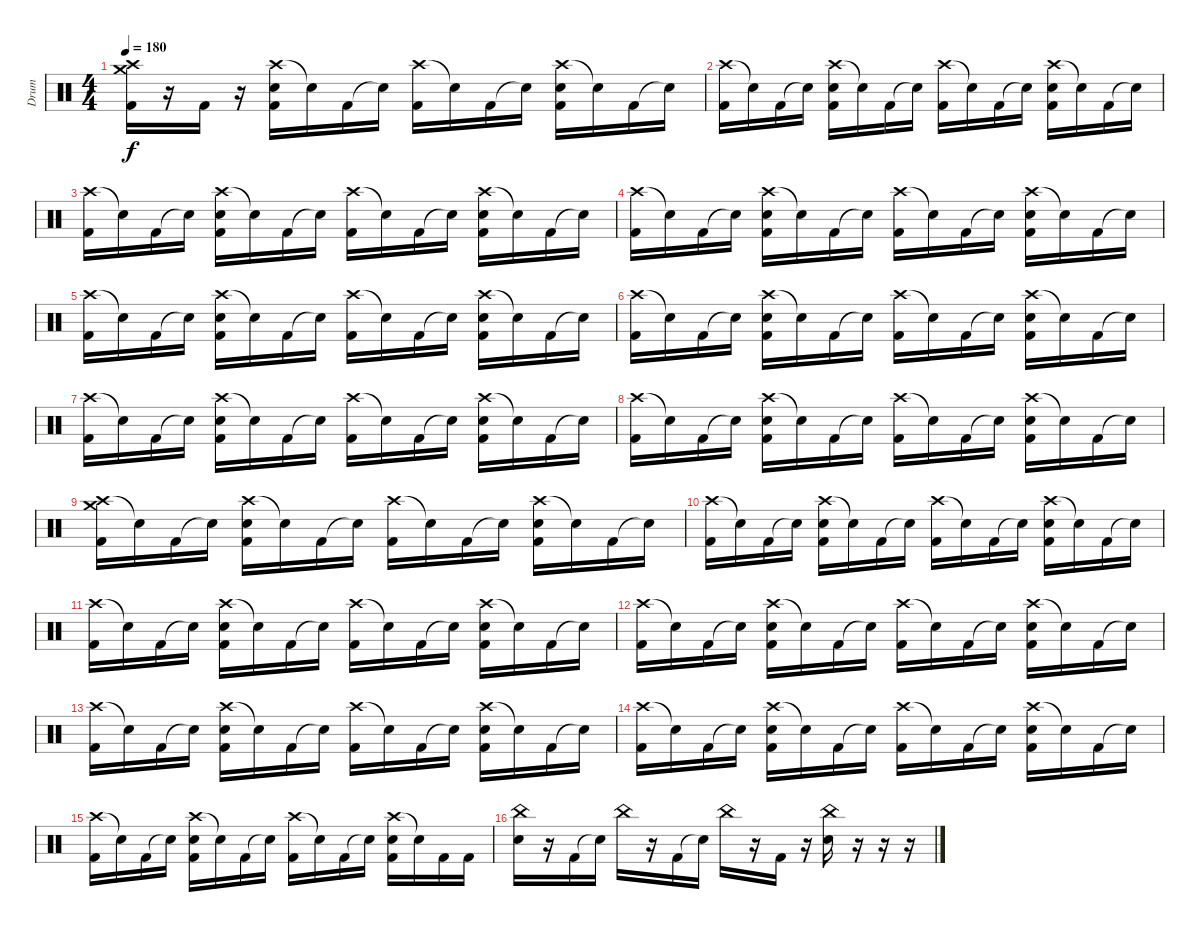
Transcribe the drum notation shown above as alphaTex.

\track ("Drum" "Drum") {instrument percussion}
\staff {score}
\articulation defaults
\ts (4 4)
\tempo 180
\clef neutral
\ks c
("Crash high (hit)" "Crash medium (hit)" "Kick (hit) 2").16{dy f} r.16 "Kick (hit) 2".16 r.16 ("Crash high (hit)" "Electric Snare (hit)" "Kick (hit) 2").16 "Snare (hit)"{t}.16 "Kick (hit) 2".16 "Snare (hit)"{t}.16 ("Crash high (hit)" "Kick (hit) 2").16 "Snare (hit)"{t}.16 "Kick (hit) 2".16 "Snare (hit)"{t}.16 ("Crash high (hit)" "Electric Snare (hit)" "Kick (hit) 2").16 "Snare (hit)"{t}.16 "Kick (hit) 2".16 "Snare (hit)"{t}.16 |
("Crash high (hit)" "Kick (hit) 2").16 "Snare (hit)"{t}.16 "Kick (hit) 2".16 "Snare (hit)"{t}.16 ("Crash high (hit)" "Electric Snare (hit)" "Kick (hit) 2").16 "Snare (hit)"{t}.16 "Kick (hit) 2".16 "Snare (hit)"{t}.16 ("Crash high (hit)" "Kick (hit) 2").16 "Snare (hit)"{t}.16 "Kick (hit) 2".16 "Snare (hit)"{t}.16 ("Crash high (hit)" "Electric Snare (hit)" "Kick (hit) 2").16 "Snare (hit)"{t}.16 "Kick (hit) 2".16 "Snare (hit)"{t}.16 |
("Crash high (hit)" "Kick (hit) 2").16 "Snare (hit)"{t}.16 "Kick (hit) 2".16 "Snare (hit)"{t}.16 ("Crash high (hit)" "Electric Snare (hit)" "Kick (hit) 2").16 "Snare (hit)"{t}.16 "Kick (hit) 2".16 "Snare (hit)"{t}.16 ("Crash high (hit)" "Kick (hit) 2").16 "Snare (hit)"{t}.16 "Kick (hit) 2".16 "Snare (hit)"{t}.16 ("Crash high (hit)" "Electric Snare (hit)" "Kick (hit) 2").16 "Snare (hit)"{t}.16 "Kick (hit) 2".16 "Snare (hit)"{t}.16 |
("Crash high (hit)" "Kick (hit) 2").16 "Snare (hit)"{t}.16 "Kick (hit) 2".16 "Snare (hit)"{t}.16 ("Crash high (hit)" "Electric Snare (hit)" "Kick (hit) 2").16 "Snare (hit)"{t}.16 "Kick (hit) 2".16 "Snare (hit)"{t}.16 ("Crash high (hit)" "Kick (hit) 2").16 "Snare (hit)"{t}.16 "Kick (hit) 2".16 "Snare (hit)"{t}.16 ("Crash high (hit)" "Electric Snare (hit)" "Kick (hit) 2").16 "Snare (hit)"{t}.16 "Kick (hit) 2".16 "Snare (hit)"{t}.16 |
("Crash high (hit)" "Kick (hit) 2").16 "Snare (hit)"{t}.16 "Kick (hit) 2".16 "Snare (hit)"{t}.16 ("Crash high (hit)" "Electric Snare (hit)" "Kick (hit) 2").16 "Snare (hit)"{t}.16 "Kick (hit) 2".16 "Snare (hit)"{t}.16 ("Crash high (hit)" "Kick (hit) 2").16 "Snare (hit)"{t}.16 "Kick (hit) 2".16 "Snare (hit)"{t}.16 ("Crash high (hit)" "Electric Snare (hit)" "Kick (hit) 2").16 "Snare (hit)"{t}.16 "Kick (hit) 2".16 "Snare (hit)"{t}.16 |
("Crash high (hit)" "Kick (hit) 2").16 "Snare (hit)"{t}.16 "Kick (hit) 2".16 "Snare (hit)"{t}.16 ("Crash high (hit)" "Electric Snare (hit)" "Kick (hit) 2").16 "Snare (hit)"{t}.16 "Kick (hit) 2".16 "Snare (hit)"{t}.16 ("Crash high (hit)" "Kick (hit) 2").16 "Snare (hit)"{t}.16 "Kick (hit) 2".16 "Snare (hit)"{t}.16 ("Crash high (hit)" "Electric Snare (hit)" "Kick (hit) 2").16 "Snare (hit)"{t}.16 "Kick (hit) 2".16 "Snare (hit)"{t}.16 |
("Crash high (hit)" "Kick (hit) 2").16 "Snare (hit)"{t}.16 "Kick (hit) 2".16 "Snare (hit)"{t}.16 ("Crash high (hit)" "Electric Snare (hit)" "Kick (hit) 2").16 "Snare (hit)"{t}.16 "Kick (hit) 2".16 "Snare (hit)"{t}.16 ("Crash high (hit)" "Kick (hit) 2").16 "Snare (hit)"{t}.16 "Kick (hit) 2".16 "Snare (hit)"{t}.16 ("Crash high (hit)" "Electric Snare (hit)" "Kick (hit) 2").16 "Snare (hit)"{t}.16 "Kick (hit) 2".16 "Snare (hit)"{t}.16 |
("Crash high (hit)" "Kick (hit) 2").16 "Snare (hit)"{t}.16 "Kick (hit) 2".16 "Snare (hit)"{t}.16 ("Crash high (hit)" "Electric Snare (hit)" "Kick (hit) 2").16 "Snare (hit)"{t}.16 "Kick (hit) 2".16 "Snare (hit)"{t}.16 ("Crash high (hit)" "Kick (hit) 2").16 "Snare (hit)"{t}.16 "Kick (hit) 2".16 "Snare (hit)"{t}.16 ("Crash high (hit)" "Electric Snare (hit)" "Kick (hit) 2").16 "Snare (hit)"{t}.16 "Kick (hit) 2".16 "Snare (hit)"{t}.16 |
("Crash high (hit)" "Crash medium (hit)" "Kick (hit) 2").16 "Snare (hit)"{t}.16 "Kick (hit) 2".16 "Snare (hit)"{t}.16 ("Crash high (hit)" "Electric Snare (hit)" "Kick (hit) 2").16 "Snare (hit)"{t}.16 "Kick (hit) 2".16 "Snare (hit)"{t}.16 ("Crash high (hit)" "Kick (hit) 2").16 "Snare (hit)"{t}.16 "Kick (hit) 2".16 "Snare (hit)"{t}.16 ("Crash high (hit)" "Electric Snare (hit)" "Kick (hit) 2").16 "Snare (hit)"{t}.16 "Kick (hit) 2".16 "Snare (hit)"{t}.16 |
("Crash high (hit)" "Kick (hit) 2").16 "Snare (hit)"{t}.16 "Kick (hit) 2".16 "Snare (hit)"{t}.16 ("Crash high (hit)" "Electric Snare (hit)" "Kick (hit) 2").16 "Snare (hit)"{t}.16 "Kick (hit) 2".16 "Snare (hit)"{t}.16 ("Crash high (hit)" "Kick (hit) 2").16 "Snare (hit)"{t}.16 "Kick (hit) 2".16 "Snare (hit)"{t}.16 ("Crash high (hit)" "Electric Snare (hit)" "Kick (hit) 2").16 "Snare (hit)"{t}.16 "Kick (hit) 2".16 "Snare (hit)"{t}.16 |
("Crash high (hit)" "Kick (hit) 2").16 "Snare (hit)"{t}.16 "Kick (hit) 2".16 "Snare (hit)"{t}.16 ("Crash high (hit)" "Electric Snare (hit)" "Kick (hit) 2").16 "Snare (hit)"{t}.16 "Kick (hit) 2".16 "Snare (hit)"{t}.16 ("Crash high (hit)" "Kick (hit) 2").16 "Snare (hit)"{t}.16 "Kick (hit) 2".16 "Snare (hit)"{t}.16 ("Crash high (hit)" "Electric Snare (hit)" "Kick (hit) 2").16 "Snare (hit)"{t}.16 "Kick (hit) 2".16 "Snare (hit)"{t}.16 |
("Crash high (hit)" "Kick (hit) 2").16 "Snare (hit)"{t}.16 "Kick (hit) 2".16 "Snare (hit)"{t}.16 ("Crash high (hit)" "Electric Snare (hit)" "Kick (hit) 2").16 "Snare (hit)"{t}.16 "Kick (hit) 2".16 "Snare (hit)"{t}.16 ("Crash high (hit)" "Kick (hit) 2").16 "Snare (hit)"{t}.16 "Kick (hit) 2".16 "Snare (hit)"{t}.16 ("Crash high (hit)" "Electric Snare (hit)" "Kick (hit) 2").16 "Snare (hit)"{t}.16 "Kick (hit) 2".16 "Snare (hit)"{t}.16 |
("Crash high (hit)" "Kick (hit) 2").16 "Snare (hit)"{t}.16 "Kick (hit) 2".16 "Snare (hit)"{t}.16 ("Crash high (hit)" "Electric Snare (hit)" "Kick (hit) 2").16 "Snare (hit)"{t}.16 "Kick (hit) 2".16 "Snare (hit)"{t}.16 ("Crash high (hit)" "Kick (hit) 2").16 "Snare (hit)"{t}.16 "Kick (hit) 2".16 "Snare (hit)"{t}.16 ("Crash high (hit)" "Electric Snare (hit)" "Kick (hit) 2").16 "Snare (hit)"{t}.16 "Kick (hit) 2".16 "Snare (hit)"{t}.16 |
("Crash high (hit)" "Kick (hit) 2").16 "Snare (hit)"{t}.16 "Kick (hit) 2".16 "Snare (hit)"{t}.16 ("Crash high (hit)" "Electric Snare (hit)" "Kick (hit) 2").16 "Snare (hit)"{t}.16 "Kick (hit) 2".16 "Snare (hit)"{t}.16 ("Crash high (hit)" "Kick (hit) 2").16 "Snare (hit)"{t}.16 "Kick (hit) 2".16 "Snare (hit)"{t}.16 ("Crash high (hit)" "Electric Snare (hit)" "Kick (hit) 2").16 "Snare (hit)"{t}.16 "Kick (hit) 2".16 "Snare (hit)"{t}.16 |
("Crash high (hit)" "Kick (hit) 2").16 "Snare (hit)"{t}.16 "Kick (hit) 2".16 "Snare (hit)"{t}.16 ("Crash high (hit)" "Electric Snare (hit)" "Kick (hit) 2").16 "Snare (hit)"{t}.16 "Kick (hit) 2".16 "Snare (hit)"{t}.16 ("Crash high (hit)" "Kick (hit) 2").16 "Snare (hit)"{t}.16 "Kick (hit) 2".16 "Snare (hit)"{t}.16 ("Crash high (hit)" "Electric Snare (hit)" "Kick (hit) 2").16 "Snare (hit)"{t}.16 "Kick (hit) 2".16 "Kick (hit) 2".16 |
("China (hit)" "Electric Snare (hit)").16 r.16 "Kick (hit) 2".16 "Snare (hit)"{t}.16 "China (hit)".16 r.16 "Kick (hit) 2".16 "Snare (hit)"{t}.16 "China (hit)".16 r.16 "Kick (hit) 2".16 r.16 ("China (hit)" "Electric Snare (hit)").16 r.16 r.16 r.16
